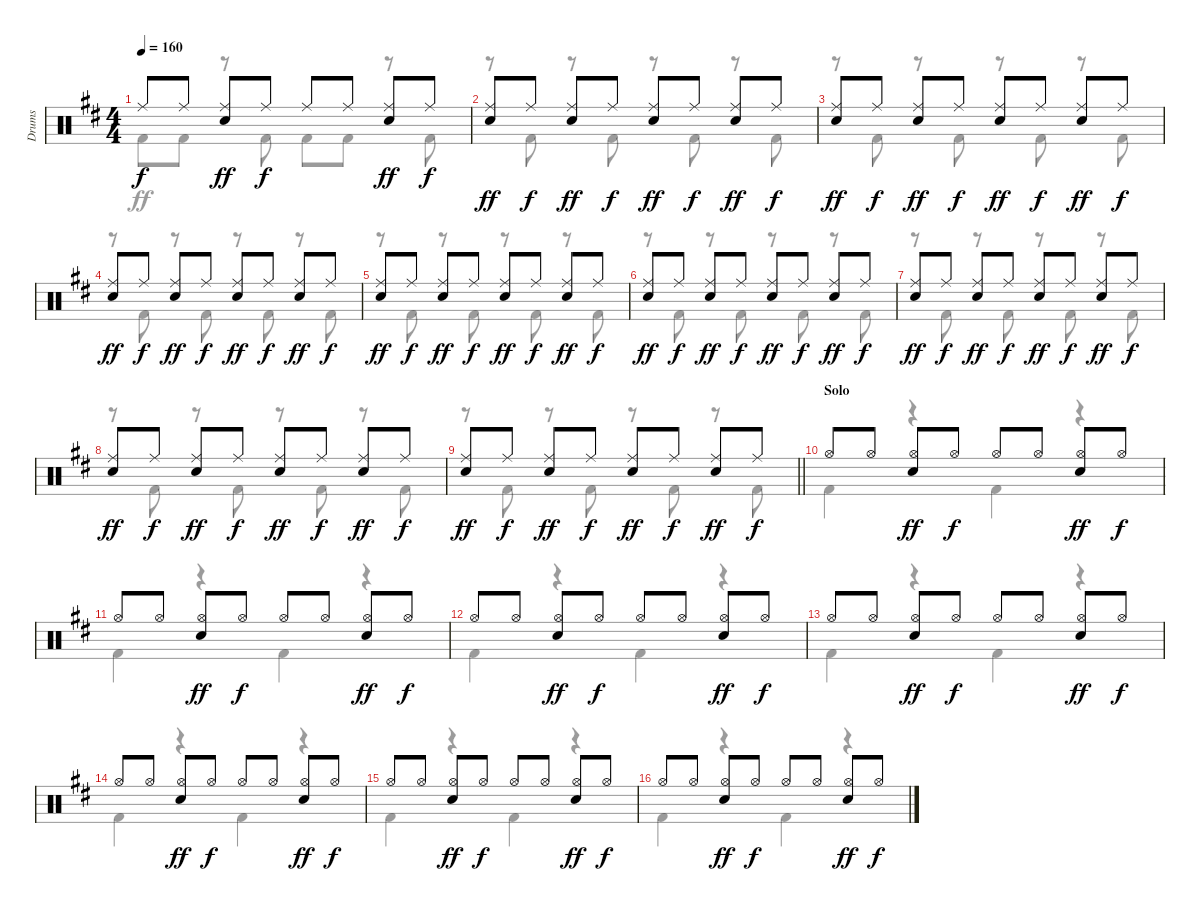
\track ("Drums" "Drums") {instrument percussion}
\staff {score}
\articulation defaults
\voice
\ts (4 4)
\tempo 160
\clef neutral
\ks bminor "Ride (middle)".8{dy f} "Ride (middle)".8
("Ride (middle)" "Electric Snare (hit)").8{dy ff} "Ride (middle)".8{dy f} "Ride (middle)".8 "Ride (middle)".8 ("Ride (middle)" "Electric Snare (hit)").8{dy ff} "Ride (middle)".8{dy f} |
("Ride (middle)" "Electric Snare (hit)").8{dy ff} "Ride (middle)".8{dy f} ("Ride (middle)" "Electric Snare (hit)").8{dy ff} "Ride (middle)".8{dy f} ("Ride (middle)" "Electric Snare (hit)").8{dy ff} "Ride (middle)".8{dy f} ("Ride (middle)" "Electric Snare (hit)").8{dy ff} "Ride (middle)".8{dy f} |
("Ride (middle)" "Electric Snare (hit)").8{dy ff} "Ride (middle)".8{dy f} ("Ride (middle)" "Electric Snare (hit)").8{dy ff} "Ride (middle)".8{dy f} ("Ride (middle)" "Electric Snare (hit)").8{dy ff} "Ride (middle)".8{dy f} ("Ride (middle)" "Electric Snare (hit)").8{dy ff} "Ride (middle)".8{dy f} |
("Ride (middle)" "Electric Snare (hit)").8{dy ff} "Ride (middle)".8{dy f} ("Ride (middle)" "Electric Snare (hit)").8{dy ff} "Ride (middle)".8{dy f} ("Ride (middle)" "Electric Snare (hit)").8{dy ff} "Ride (middle)".8{dy f} ("Ride (middle)" "Electric Snare (hit)").8{dy ff} "Ride (middle)".8{dy f} |
("Ride (middle)" "Electric Snare (hit)").8{dy ff} "Ride (middle)".8{dy f} ("Ride (middle)" "Electric Snare (hit)").8{dy ff} "Ride (middle)".8{dy f} ("Ride (middle)" "Electric Snare (hit)").8{dy ff} "Ride (middle)".8{dy f} ("Ride (middle)" "Electric Snare (hit)").8{dy ff} "Ride (middle)".8{dy f} |
("Ride (middle)" "Electric Snare (hit)").8{dy ff} "Ride (middle)".8{dy f} ("Ride (middle)" "Electric Snare (hit)").8{dy ff} "Ride (middle)".8{dy f} ("Ride (middle)" "Electric Snare (hit)").8{dy ff} "Ride (middle)".8{dy f} ("Ride (middle)" "Electric Snare (hit)").8{dy ff} "Ride (middle)".8{dy f} |
("Ride (middle)" "Electric Snare (hit)").8{dy ff} "Ride (middle)".8{dy f} ("Ride (middle)" "Electric Snare (hit)").8{dy ff} "Ride (middle)".8{dy f} ("Ride (middle)" "Electric Snare (hit)").8{dy ff} "Ride (middle)".8{dy f} ("Ride (middle)" "Electric Snare (hit)").8{dy ff} "Ride (middle)".8{dy f} |
("Ride (middle)" "Electric Snare (hit)").8{dy ff} "Ride (middle)".8{dy f} ("Ride (middle)" "Electric Snare (hit)").8{dy ff} "Ride (middle)".8{dy f} ("Ride (middle)" "Electric Snare (hit)").8{dy ff} "Ride (middle)".8{dy f} ("Ride (middle)" "Electric Snare (hit)").8{dy ff} "Ride (middle)".8{dy f} |
\barLineRight lightlight
("Ride (middle)" "Electric Snare (hit)").8{dy ff} "Ride (middle)".8{dy f} ("Ride (middle)" "Electric Snare (hit)").8{dy ff} "Ride (middle)".8{dy f} ("Ride (middle)" "Electric Snare (hit)").8{dy ff} "Ride (middle)".8{dy f} ("Ride (middle)" "Electric Snare (hit)").8{dy ff} "Ride (middle)".8{dy f} |
\section ("" "Solo")
"Hi-Hat (open)".8 "Hi-Hat (open)".8 ("Hi-Hat (open)" "Electric Snare (hit)").8{dy ff} "Hi-Hat (open)".8{dy f} "Hi-Hat (open)".8 "Hi-Hat (open)".8 ("Hi-Hat (open)" "Electric Snare (hit)").8{dy ff} "Hi-Hat (open)".8{dy f} |
"Hi-Hat (open)".8 "Hi-Hat (open)".8 ("Hi-Hat (open)" "Electric Snare (hit)").8{dy ff} "Hi-Hat (open)".8{dy f} "Hi-Hat (open)".8 "Hi-Hat (open)".8 ("Hi-Hat (open)" "Electric Snare (hit)").8{dy ff} "Hi-Hat (open)".8{dy f} |
"Hi-Hat (open)".8 "Hi-Hat (open)".8 ("Hi-Hat (open)" "Electric Snare (hit)").8{dy ff} "Hi-Hat (open)".8{dy f} "Hi-Hat (open)".8 "Hi-Hat (open)".8 ("Hi-Hat (open)" "Electric Snare (hit)").8{dy ff} "Hi-Hat (open)".8{dy f} |
"Hi-Hat (open)".8 "Hi-Hat (open)".8 ("Hi-Hat (open)" "Electric Snare (hit)").8{dy ff} "Hi-Hat (open)".8{dy f} "Hi-Hat (open)".8 "Hi-Hat (open)".8 ("Hi-Hat (open)" "Electric Snare (hit)").8{dy ff} "Hi-Hat (open)".8{dy f} |
"Hi-Hat (open)".8 "Hi-Hat (open)".8 ("Hi-Hat (open)" "Electric Snare (hit)").8{dy ff} "Hi-Hat (open)".8{dy f} "Hi-Hat (open)".8 "Hi-Hat (open)".8 ("Hi-Hat (open)" "Electric Snare (hit)").8{dy ff} "Hi-Hat (open)".8{dy f} |
"Hi-Hat (open)".8 "Hi-Hat (open)".8 ("Hi-Hat (open)" "Electric Snare (hit)").8{dy ff} "Hi-Hat (open)".8{dy f} "Hi-Hat (open)".8 "Hi-Hat (open)".8 ("Hi-Hat (open)" "Electric Snare (hit)").8{dy ff} "Hi-Hat (open)".8{dy f} |
"Hi-Hat (open)".8 "Hi-Hat (open)".8 ("Hi-Hat (open)" "Electric Snare (hit)").8{dy ff} "Hi-Hat (open)".8{dy f} "Hi-Hat (open)".8 "Hi-Hat (open)".8 ("Hi-Hat (open)" "Electric Snare (hit)").8{dy ff} "Hi-Hat (open)".8{dy f}
\voice
\clef neutral
\ottava regular
\simile none
\ks bminor "Kick (hit) 2".8{dy ff} "Kick (hit) 2".8
r.8 "Kick (hit) 2".8 "Kick (hit) 2".8 "Kick (hit) 2".8 r.8 "Kick (hit) 2".8 |
r.8 "Kick (hit) 2".8 r.8 "Kick (hit) 2".8 r.8 "Kick (hit) 2".8 r.8 "Kick (hit) 2".8 |
r.8 "Kick (hit) 2".8 r.8 "Kick (hit) 2".8 r.8 "Kick (hit) 2".8 r.8 "Kick (hit) 2".8 |
r.8 "Kick (hit) 2".8 r.8 "Kick (hit) 2".8 r.8 "Kick (hit) 2".8 r.8 "Kick (hit) 2".8 |
r.8 "Kick (hit) 2".8 r.8 "Kick (hit) 2".8 r.8 "Kick (hit) 2".8 r.8 "Kick (hit) 2".8 |
r.8 "Kick (hit) 2".8 r.8 "Kick (hit) 2".8 r.8 "Kick (hit) 2".8 r.8 "Kick (hit) 2".8 |
r.8 "Kick (hit) 2".8 r.8 "Kick (hit) 2".8 r.8 "Kick (hit) 2".8 r.8 "Kick (hit) 2".8 |
r.8 "Kick (hit) 2".8 r.8 "Kick (hit) 2".8 r.8 "Kick (hit) 2".8 r.8 "Kick (hit) 2".8 |
\barLineRight lightlight
r.8 "Kick (hit) 2".8 r.8 "Kick (hit) 2".8 r.8 "Kick (hit) 2".8 r.8 "Kick (hit) 2".8 |
"Kick (hit) 2".4 r.4 "Kick (hit) 2".4 r.4 |
"Kick (hit) 2".4 r.4 "Kick (hit) 2".4 r.4 |
"Kick (hit) 2".4 r.4 "Kick (hit) 2".4 r.4 |
"Kick (hit) 2".4 r.4 "Kick (hit) 2".4 r.4 |
"Kick (hit) 2".4 r.4 "Kick (hit) 2".4 r.4 |
"Kick (hit) 2".4 r.4 "Kick (hit) 2".4 r.4 |
"Kick (hit) 2".4 r.4 "Kick (hit) 2".4 r.4
